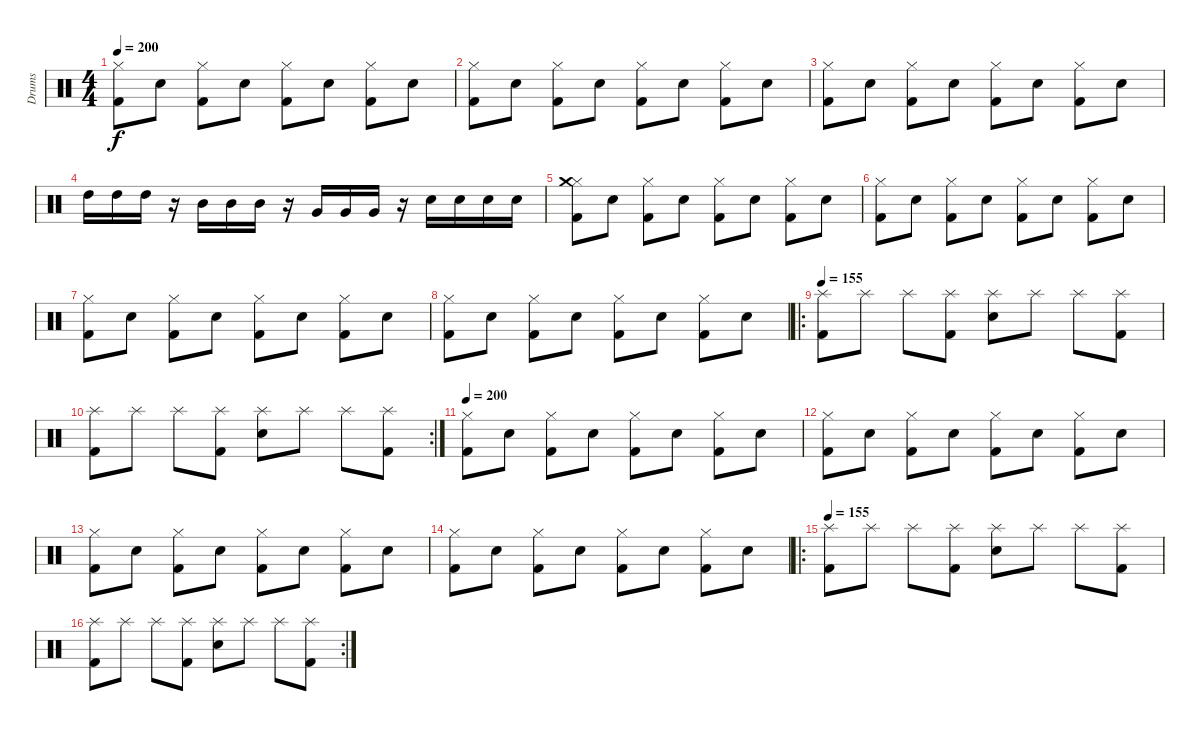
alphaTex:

\track ("Drums" "Drums") {instrument percussion}
\staff {score}
\articulation defaults
\ts (4 4)
\tempo 200
\clef neutral
\ks c
("Kick (hit) 2" "Hi-Hat (closed)").8{dy f} "Snare (hit) 2".8 ("Kick (hit) 2" "Hi-Hat (closed)").8 "Snare (hit) 2".8 ("Kick (hit) 2" "Hi-Hat (closed)").8 "Snare (hit) 2".8 ("Kick (hit) 2" "Hi-Hat (closed)").8 "Snare (hit) 2".8 |
("Kick (hit) 2" "Hi-Hat (closed)").8 "Snare (hit) 2".8 ("Kick (hit) 2" "Hi-Hat (closed)").8 "Snare (hit) 2".8 ("Kick (hit) 2" "Hi-Hat (closed)").8 "Snare (hit) 2".8 ("Kick (hit) 2" "Hi-Hat (closed)").8 "Snare (hit) 2".8 |
("Kick (hit) 2" "Hi-Hat (closed)").8 "Snare (hit) 2".8 ("Kick (hit) 2" "Hi-Hat (closed)").8 "Snare (hit) 2".8 ("Kick (hit) 2" "Hi-Hat (closed)").8 "Snare (hit) 2".8 ("Kick (hit) 2" "Hi-Hat (closed)").8 "Snare (hit) 2".8 |
"High Tom (hit)".16 "High Tom (hit)".16 "High Tom (hit)".16 r.16 "Mid Tom (hit)".16 "Mid Tom (hit)".16 "Mid Tom (hit)".16 r.16 "Very Low Tom (hit)".16 "Very Low Tom (hit)".16 "Very Low Tom (hit)".16 r.16 "Snare (hit) 2".16 "Snare (hit) 2".16 "Snare (hit) 2".16 "Snare (hit) 2".16 |
("Kick (hit) 2" "Hi-Hat (closed)" "Crash medium (hit)").8 "Snare (hit) 2".8 ("Kick (hit) 2" "Hi-Hat (closed)").8 "Snare (hit) 2".8 ("Kick (hit) 2" "Hi-Hat (closed)").8 "Snare (hit) 2".8 ("Kick (hit) 2" "Hi-Hat (closed)").8 "Snare (hit) 2".8 |
("Kick (hit) 2" "Hi-Hat (closed)").8 "Snare (hit) 2".8 ("Kick (hit) 2" "Hi-Hat (closed)").8 "Snare (hit) 2".8 ("Kick (hit) 2" "Hi-Hat (closed)").8 "Snare (hit) 2".8 ("Kick (hit) 2" "Hi-Hat (closed)").8 "Snare (hit) 2".8 |
("Kick (hit) 2" "Hi-Hat (closed)").8 "Snare (hit) 2".8 ("Kick (hit) 2" "Hi-Hat (closed)").8 "Snare (hit) 2".8 ("Kick (hit) 2" "Hi-Hat (closed)").8 "Snare (hit) 2".8 ("Kick (hit) 2" "Hi-Hat (closed)").8 "Snare (hit) 2".8 |
("Kick (hit) 2" "Hi-Hat (closed)").8 "Snare (hit) 2".8 ("Kick (hit) 2" "Hi-Hat (closed)").8 "Snare (hit) 2".8 ("Kick (hit) 2" "Hi-Hat (closed)").8 "Snare (hit) 2".8 ("Kick (hit) 2" "Hi-Hat (closed)").8 "Snare (hit) 2".8 |
\ro
\tempo 155
("Kick (hit) 2" "Splash (hit)").8 "Splash (hit)".8 "Splash (hit)".8 ("Kick (hit) 2" "Splash (hit)").8 ("Snare (hit) 2" "Splash (hit)").8 "Splash (hit)".8 "Splash (hit)".8 ("Kick (hit) 2" "Splash (hit)").8 |
\rc 2
("Kick (hit) 2" "Splash (hit)").8 "Splash (hit)".8 "Splash (hit)".8 ("Kick (hit) 2" "Splash (hit)").8 ("Snare (hit) 2" "Splash (hit)").8 "Splash (hit)".8 "Splash (hit)".8 ("Kick (hit) 2" "Splash (hit)").8 |
\tempo 200
("Kick (hit) 2" "Hi-Hat (closed)").8 "Snare (hit) 2".8 ("Kick (hit) 2" "Hi-Hat (closed)").8 "Snare (hit) 2".8 ("Kick (hit) 2" "Hi-Hat (closed)").8 "Snare (hit) 2".8 ("Kick (hit) 2" "Hi-Hat (closed)").8 "Snare (hit) 2".8 |
("Kick (hit) 2" "Hi-Hat (closed)").8 "Snare (hit) 2".8 ("Kick (hit) 2" "Hi-Hat (closed)").8 "Snare (hit) 2".8 ("Kick (hit) 2" "Hi-Hat (closed)").8 "Snare (hit) 2".8 ("Kick (hit) 2" "Hi-Hat (closed)").8 "Snare (hit) 2".8 |
("Kick (hit) 2" "Hi-Hat (closed)").8 "Snare (hit) 2".8 ("Kick (hit) 2" "Hi-Hat (closed)").8 "Snare (hit) 2".8 ("Kick (hit) 2" "Hi-Hat (closed)").8 "Snare (hit) 2".8 ("Kick (hit) 2" "Hi-Hat (closed)").8 "Snare (hit) 2".8 |
("Kick (hit) 2" "Hi-Hat (closed)").8 "Snare (hit) 2".8 ("Kick (hit) 2" "Hi-Hat (closed)").8 "Snare (hit) 2".8 ("Kick (hit) 2" "Hi-Hat (closed)").8 "Snare (hit) 2".8 ("Kick (hit) 2" "Hi-Hat (closed)").8 "Snare (hit) 2".8 |
\ro
\tempo 155
("Kick (hit) 2" "Splash (hit)").8 "Splash (hit)".8 "Splash (hit)".8 ("Kick (hit) 2" "Splash (hit)").8 ("Snare (hit) 2" "Splash (hit)").8 "Splash (hit)".8 "Splash (hit)".8 ("Kick (hit) 2" "Splash (hit)").8 |
\rc 2
("Kick (hit) 2" "Splash (hit)").8 "Splash (hit)".8 "Splash (hit)".8 ("Kick (hit) 2" "Splash (hit)").8 ("Snare (hit) 2" "Splash (hit)").8 "Splash (hit)".8 "Splash (hit)".8 ("Kick (hit) 2" "Splash (hit)").8
